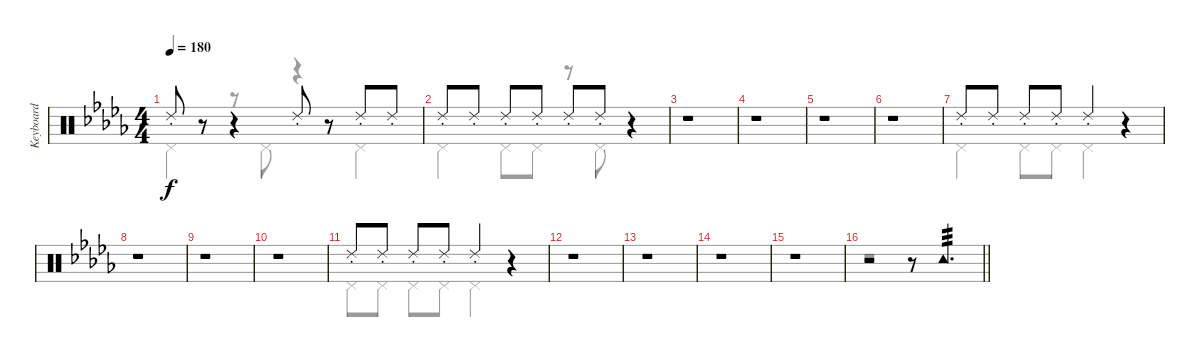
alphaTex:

\track ("Keyboard" "Keyboard") {instrument percussion}
\staff {score}
\articulation defaults
\voice
\ts (4 4)
\tempo 180
\clef neutral
\ks db "Ride (choke) 2".8{dy f}
r.8 r.4 "Ride (choke) 2".8 r.8 "Ride (choke) 2".8 "Ride (choke) 2".8 |
"Ride (choke) 2".8 "Ride (choke) 2".8 "Ride (choke) 2".8 "Ride (choke) 2".8 "Ride (choke) 2".8 "Ride (choke) 2".8 r.4 |
r.1 |
r.1 |
r.1 |
r.1 |
"Ride (choke) 2".8 "Ride (choke) 2".8 "Ride (choke) 2".8 "Ride (choke) 2".8 "Ride (choke) 2".4 r.4 |
r.1 |
r.1 |
r.1 |
"Ride (choke) 2".8 "Ride (choke) 2".8 "Ride (choke) 2".8 "Ride (choke) 2".8 "Ride (choke) 2".4 r.4 |
r.1 |
r.1 |
r.1 |
r.1 |
\barLineRight lightlight
r.2 r.8 "Tambourine (hit)".4{d tp 3}
\voice
\clef neutral
\ottava regular
\simile none
\ks db "Pedal Hi-Hat (hit)".4{dy f}
r.8 "Pedal Hi-Hat (hit)".8 r.4 "Pedal Hi-Hat (hit)".4 |
"Pedal Hi-Hat (hit)".4 "Pedal Hi-Hat (hit)".8 "Pedal Hi-Hat (hit)".8 r.8 "Pedal Hi-Hat (hit)".8 r.4 |
|
|
|
|
"Pedal Hi-Hat (hit)".4 "Pedal Hi-Hat (hit)".8 "Pedal Hi-Hat (hit)".8 "Pedal Hi-Hat (hit)".4 r.4 |
|
|
|
"Pedal Hi-Hat (hit)".8 "Pedal Hi-Hat (hit)".8 "Pedal Hi-Hat (hit)".8 "Pedal Hi-Hat (hit)".8 "Pedal Hi-Hat (hit)".4 r.4 |
|
|
|
|
\barLineRight lightlight
r.1
